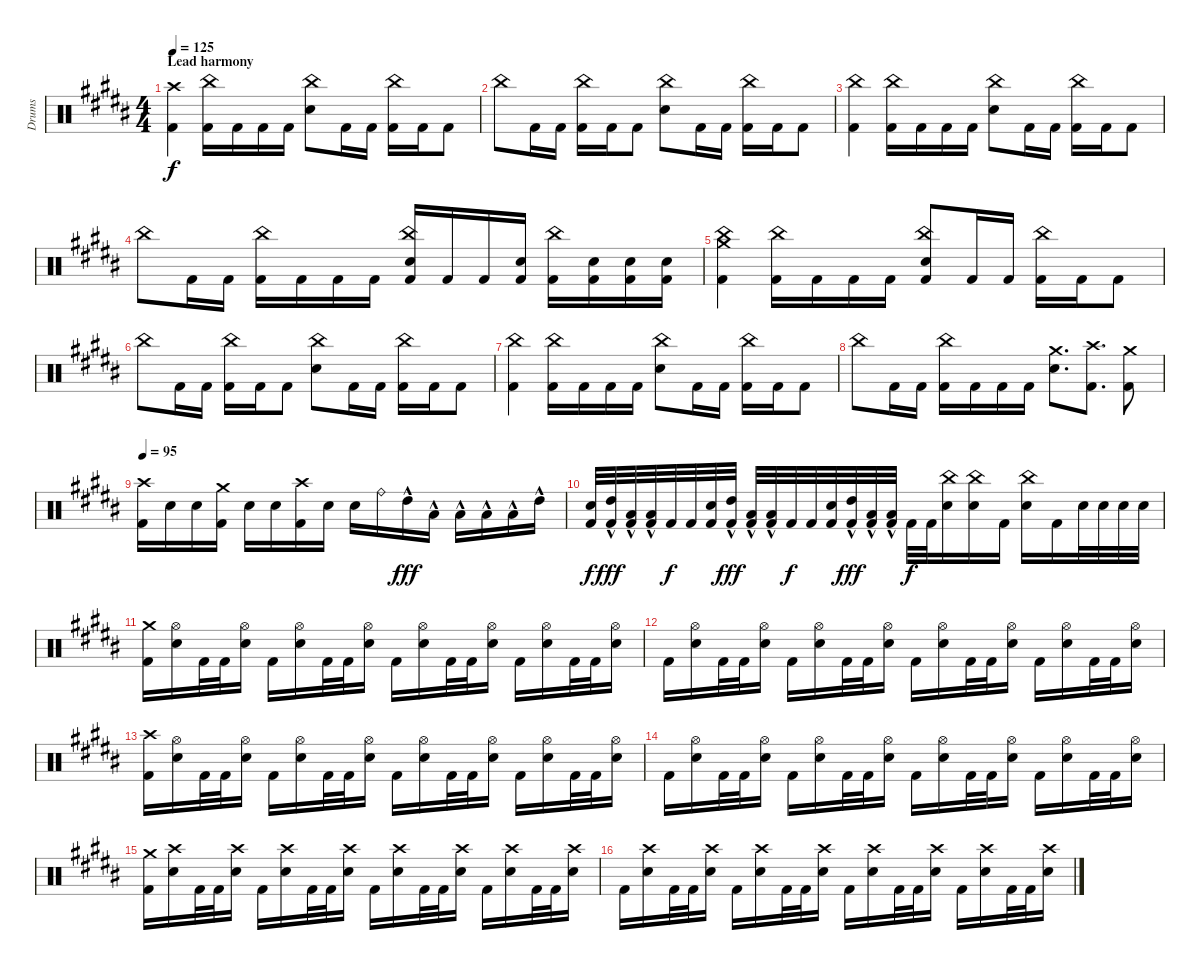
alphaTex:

\track ("Drums" "Drums") {instrument percussion}
\staff {score}
\articulation defaults
\ts (4 4)
\section ("" "Lead harmony")
\tempo 125
\clef neutral
\ks b
("Crash high (hit)" "Kick (hit) 2").4{dy f} ("China (hit)" "Kick (hit) 2").16 "Kick (hit) 2".16 "Kick (hit) 2".16 "Kick (hit) 2".16 ("China (hit)" "Electric Snare (hit)").8 "Kick (hit) 2".16 "Kick (hit) 2".16 ("China (hit)" "Kick (hit) 2").16 "Kick (hit) 2".16 "Kick (hit) 2".8 |
"China (hit)".8 "Kick (hit) 2".16 "Kick (hit) 2".16 ("China (hit)" "Kick (hit) 2").16 "Kick (hit) 2".16 "Kick (hit) 2".8 ("China (hit)" "Electric Snare (hit)").8 "Kick (hit) 2".16 "Kick (hit) 2".16 ("China (hit)" "Kick (hit) 2").16 "Kick (hit) 2".16 "Kick (hit) 2".8 |
("China (hit)" "Kick (hit) 2").4 ("China (hit)" "Kick (hit) 2").16 "Kick (hit) 2".16 "Kick (hit) 2".16 "Kick (hit) 2".16 ("China (hit)" "Electric Snare (hit)").8 "Kick (hit) 2".16 "Kick (hit) 2".16 ("China (hit)" "Kick (hit) 2").16 "Kick (hit) 2".16 "Kick (hit) 2".8 |
"China (hit)".8 "Kick (hit) 2".16 "Kick (hit) 2".16 ("China (hit)" "Kick (hit) 2").16 "Kick (hit) 2".16 "Kick (hit) 2".16 "Kick (hit) 2".16 ("China (hit)" "Electric Snare (hit)" "Kick (hit) 2").16 "Kick (hit) 2".16 "Kick (hit) 2".16 ("Electric Snare (hit)" "Kick (hit) 2").16 ("China (hit)" "Kick (hit) 2").16 ("Electric Snare (hit)" "Kick (hit) 2").16 ("Electric Snare (hit)" "Kick (hit) 2").16 ("Electric Snare (hit)" "Kick (hit) 2").16 |
("Crash medium (hit)" "China (hit)" "Kick (hit) 2").4 ("China (hit)" "Kick (hit) 2").16 "Kick (hit) 2".16 "Kick (hit) 2".16 "Kick (hit) 2".16 ("China (hit)" "Electric Snare (hit)" "Kick (hit) 2").8 "Kick (hit) 2".16 "Kick (hit) 2".16 ("China (hit)" "Kick (hit) 2").16 "Kick (hit) 2".16 "Kick (hit) 2".8 |
"China (hit)".8 "Kick (hit) 2".16 "Kick (hit) 2".16 ("China (hit)" "Kick (hit) 2").16 "Kick (hit) 2".16 "Kick (hit) 2".8 ("China (hit)" "Electric Snare (hit)").8 "Kick (hit) 2".16 "Kick (hit) 2".16 ("China (hit)" "Kick (hit) 2").16 "Kick (hit) 2".16 "Kick (hit) 2".8 |
("China (hit)" "Kick (hit) 2").4 ("China (hit)" "Kick (hit) 2").16 "Kick (hit) 2".16 "Kick (hit) 2".16 "Kick (hit) 2".16 ("China (hit)" "Electric Snare (hit)").8 "Kick (hit) 2".16 "Kick (hit) 2".16 ("China (hit)" "Kick (hit) 2").16 "Kick (hit) 2".16 "Kick (hit) 2".8 |
"China (hit)".8 "Kick (hit) 2".16 "Kick (hit) 2".16 ("China (hit)" "Kick (hit) 2").16 "Kick (hit) 2".16 "Kick (hit) 2".16 "Kick (hit) 2".16 ("Crash medium (hit)" "Electric Snare (hit)").8{d} ("Crash high (hit)" "Kick (hit) 2").8{d} ("Crash medium (hit)" "Kick (hit) 2").8 |
\tempo 95
("Crash high (hit)" "Kick (hit) 2").16 "Electric Snare (hit)".16 "Electric Snare (hit)".16 ("Crash medium (hit)" "Kick (hit) 2").16 "Electric Snare (hit)".16 "Electric Snare (hit)".16 ("Crash high (hit)" "Kick (hit) 2").16 "Electric Snare (hit)".16 "Electric Snare (hit)".16 "Ride (bell)".16 "High Tom (hit)"{hac}.16{dy fff} "Low Tom (hit)"{hac}.16 "Low Tom (hit)"{hac}.16 "Low Tom (hit)"{hac}.16 "Low Tom (hit)"{hac}.16 "High Tom (hit)"{hac}.16 |
("Electric Snare (hit)" "Kick (hit) 2").32{dy f} ("High Tom (hit)"{hac} "Kick (hit) 2").32{dy fff} ("Low Tom (hit)"{hac} "Kick (hit) 2").32 ("Low Tom (hit)"{hac} "Kick (hit) 2").32 "Kick (hit) 2".32{dy f} "Kick (hit) 2".32 ("Electric Snare (hit)" "Kick (hit) 2").32 ("High Tom (hit)"{hac} "Kick (hit) 2").32{dy fff} ("Low Tom (hit)"{hac} "Kick (hit) 2").32 ("Low Tom (hit)"{hac} "Kick (hit) 2").32 "Kick (hit) 2".32{dy f} "Kick (hit) 2".32 ("Electric Snare (hit)" "Kick (hit) 2").32 ("High Tom (hit)"{hac} "Kick (hit) 2").32{dy fff} ("Low Tom (hit)"{hac} "Kick (hit) 2").32 ("Low Tom (hit)"{hac} "Kick (hit) 2").32 "Kick (hit) 2".32{dy f} "Kick (hit) 2".32 ("China (hit)" "Electric Snare (hit)").16 ("China (hit)" "Electric Snare (hit)").16 "Kick (hit) 2".16 ("China (hit)" "Electric Snare (hit)").16 "Kick (hit) 2".16 "Electric Snare (hit)".32 "Electric Snare (hit)".32 "Electric Snare (hit)".32 "Electric Snare (hit)".32 |
("Crash medium (hit)" "Kick (hit) 2").16 ("Hi-Hat (open)" "Electric Snare (hit)").16 "Kick (hit) 2".32 "Kick (hit) 2".32 ("Hi-Hat (open)" "Electric Snare (hit)").16 "Kick (hit) 2".16 ("Hi-Hat (open)" "Electric Snare (hit)").16 "Kick (hit) 2".32 "Kick (hit) 2".32 ("Hi-Hat (open)" "Electric Snare (hit)").16 "Kick (hit) 2".16 ("Hi-Hat (open)" "Electric Snare (hit)").16 "Kick (hit) 2".32 "Kick (hit) 2".32 ("Hi-Hat (open)" "Electric Snare (hit)").16 "Kick (hit) 2".16 ("Hi-Hat (open)" "Electric Snare (hit)").16 "Kick (hit) 2".32 "Kick (hit) 2".32 ("Hi-Hat (open)" "Electric Snare (hit)").16 |
"Kick (hit) 2".16 ("Hi-Hat (open)" "Electric Snare (hit)").16 "Kick (hit) 2".32 "Kick (hit) 2".32 ("Hi-Hat (open)" "Electric Snare (hit)").16 "Kick (hit) 2".16 ("Hi-Hat (open)" "Electric Snare (hit)").16 "Kick (hit) 2".32 "Kick (hit) 2".32 ("Hi-Hat (open)" "Electric Snare (hit)").16 "Kick (hit) 2".16 ("Hi-Hat (open)" "Electric Snare (hit)").16 "Kick (hit) 2".32 "Kick (hit) 2".32 ("Hi-Hat (open)" "Electric Snare (hit)").16 "Kick (hit) 2".16 ("Hi-Hat (open)" "Electric Snare (hit)").16 "Kick (hit) 2".32 "Kick (hit) 2".32 ("Hi-Hat (open)" "Electric Snare (hit)").16 |
("Crash high (hit)" "Kick (hit) 2").16 ("Hi-Hat (open)" "Electric Snare (hit)").16 "Kick (hit) 2".32 "Kick (hit) 2".32 ("Hi-Hat (open)" "Electric Snare (hit)").16 "Kick (hit) 2".16 ("Hi-Hat (open)" "Electric Snare (hit)").16 "Kick (hit) 2".32 "Kick (hit) 2".32 ("Hi-Hat (open)" "Electric Snare (hit)").16 "Kick (hit) 2".16 ("Hi-Hat (open)" "Electric Snare (hit)").16 "Kick (hit) 2".32 "Kick (hit) 2".32 ("Hi-Hat (open)" "Electric Snare (hit)").16 "Kick (hit) 2".16 ("Hi-Hat (open)" "Electric Snare (hit)").16 "Kick (hit) 2".32 "Kick (hit) 2".32 ("Hi-Hat (open)" "Electric Snare (hit)").16 |
"Kick (hit) 2".16 ("Hi-Hat (open)" "Electric Snare (hit)").16 "Kick (hit) 2".32 "Kick (hit) 2".32 ("Hi-Hat (open)" "Electric Snare (hit)").16 "Kick (hit) 2".16 ("Hi-Hat (open)" "Electric Snare (hit)").16 "Kick (hit) 2".32 "Kick (hit) 2".32 ("Hi-Hat (open)" "Electric Snare (hit)").16 "Kick (hit) 2".16 ("Hi-Hat (open)" "Electric Snare (hit)").16 "Kick (hit) 2".32 "Kick (hit) 2".32 ("Hi-Hat (open)" "Electric Snare (hit)").16 "Kick (hit) 2".16 ("Hi-Hat (open)" "Electric Snare (hit)").16 "Kick (hit) 2".32 "Kick (hit) 2".32 ("Hi-Hat (open)" "Electric Snare (hit)").16 |
("Crash medium (hit)" "Kick (hit) 2").16 ("Crash high (hit)" "Electric Snare (hit)").16 "Kick (hit) 2".32 "Kick (hit) 2".32 ("Crash high (hit)" "Electric Snare (hit)").16 "Kick (hit) 2".16 ("Crash high (hit)" "Electric Snare (hit)").16 "Kick (hit) 2".32 "Kick (hit) 2".32 ("Crash high (hit)" "Electric Snare (hit)").16 "Kick (hit) 2".16 ("Crash high (hit)" "Electric Snare (hit)").16 "Kick (hit) 2".32 "Kick (hit) 2".32 ("Crash high (hit)" "Electric Snare (hit)").16 "Kick (hit) 2".16 ("Crash high (hit)" "Electric Snare (hit)").16 "Kick (hit) 2".32 "Kick (hit) 2".32 ("Crash high (hit)" "Electric Snare (hit)").16 |
"Kick (hit) 2".16 ("Crash high (hit)" "Electric Snare (hit)").16 "Kick (hit) 2".32 "Kick (hit) 2".32 ("Crash high (hit)" "Electric Snare (hit)").16 "Kick (hit) 2".16 ("Crash high (hit)" "Electric Snare (hit)").16 "Kick (hit) 2".32 "Kick (hit) 2".32 ("Crash high (hit)" "Electric Snare (hit)").16 "Kick (hit) 2".16 ("Crash high (hit)" "Electric Snare (hit)").16 "Kick (hit) 2".32 "Kick (hit) 2".32 ("Crash high (hit)" "Electric Snare (hit)").16 "Kick (hit) 2".16 ("Crash high (hit)" "Electric Snare (hit)").16 "Kick (hit) 2".32 "Kick (hit) 2".32 ("Crash high (hit)" "Electric Snare (hit)").16
